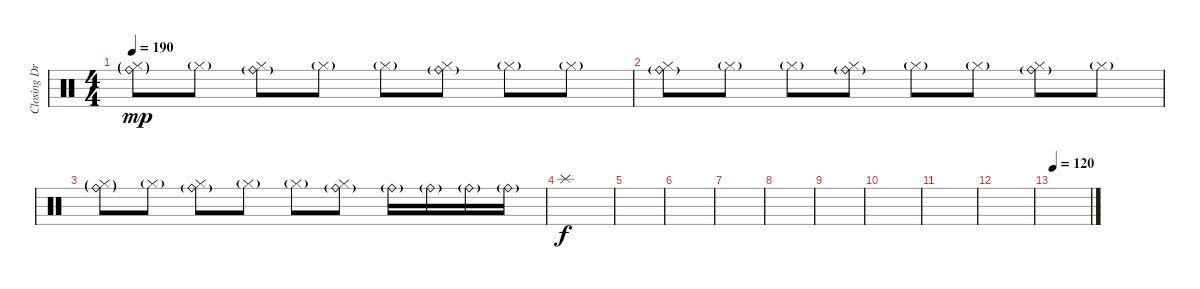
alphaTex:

\track ("Closing Drums" "Closing Dr") {instrument percussion}
\staff {score}
\articulation defaults
\ts (4 4)
\tempo 190
\clef neutral
\ks c
("Ride (bell)"{g} "Hi-Hat (closed)"{g}).8{dy mp} "Hi-Hat (closed)"{g}.8 ("Ride (bell)"{g} "Hi-Hat (closed)").8 "Hi-Hat (closed)"{g}.8 "Hi-Hat (closed)"{g}.8 ("Ride (bell)"{g} "Hi-Hat (closed)").8 "Hi-Hat (closed)"{g}.8 "Hi-Hat (closed)"{g}.8 |
("Ride (bell)"{g} "Hi-Hat (closed)").8 "Hi-Hat (closed)"{g}.8 "Hi-Hat (closed)"{g}.8 ("Ride (bell)"{g} "Hi-Hat (closed)").8 "Hi-Hat (closed)"{g}.8 "Hi-Hat (closed)"{g}.8 ("Ride (bell)"{g} "Hi-Hat (closed)").8 "Hi-Hat (closed)"{g}.8 |
("Ride (bell)"{g} "Hi-Hat (closed)"{g}).8 "Hi-Hat (closed)"{g}.8 ("Ride (bell)"{g} "Hi-Hat (closed)").8 "Hi-Hat (closed)"{g}.8 "Hi-Hat (closed)"{g}.8 ("Ride (bell)"{g} "Hi-Hat (closed)").8 "Ride (bell)"{g}.16 "Ride (bell)"{g}.16 "Ride (bell)"{g}.16 "Ride (bell)"{g}.16 |
"Splash (hit)".1{dy f} |
|
|
|
|
|
|
|
|
\tempo 120
